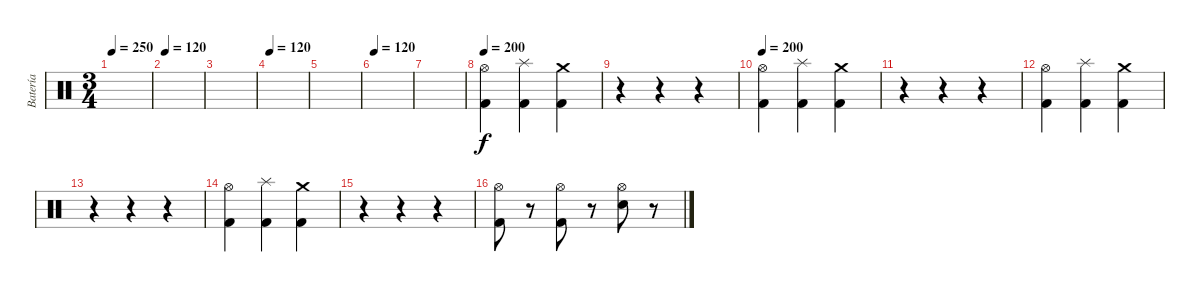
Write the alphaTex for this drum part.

\track ("Batería" "Batería") {instrument percussion}
\staff {score}
\articulation defaults
\ts (3 4)
\tempo 250
\clef neutral
\ks c
|
\tempo 120
|
|
\tempo 120
|
|
\tempo 120
|
|
\tempo 200
("Kick (hit) 2" "Hi-Hat (open)").4 ("Kick (hit) 2" "Splash (hit)").4 ("Kick (hit) 2" "Crash medium (hit)").4 |
r.4 r.4 r.4 |
\tempo 200
("Kick (hit) 2" "Hi-Hat (open)").4 ("Kick (hit) 2" "Splash (hit)").4 ("Kick (hit) 2" "Crash medium (hit)").4 |
r.4 r.4 r.4 |
("Kick (hit) 2" "Hi-Hat (open)").4 ("Kick (hit) 2" "Splash (hit)").4 ("Kick (hit) 2" "Crash medium (hit)").4 |
r.4 r.4 r.4 |
("Kick (hit) 2" "Hi-Hat (open)").4 ("Kick (hit) 2" "Splash (hit)").4 ("Kick (hit) 2" "Crash medium (hit)").4 |
r.4 r.4 r.4 |
("Kick (hit) 2" "Hi-Hat (open)").8 r.8 ("Kick (hit) 2" "Hi-Hat (open)").8 r.8 ("Snare (hit) 2" "Hi-Hat (open)").8 r.8
